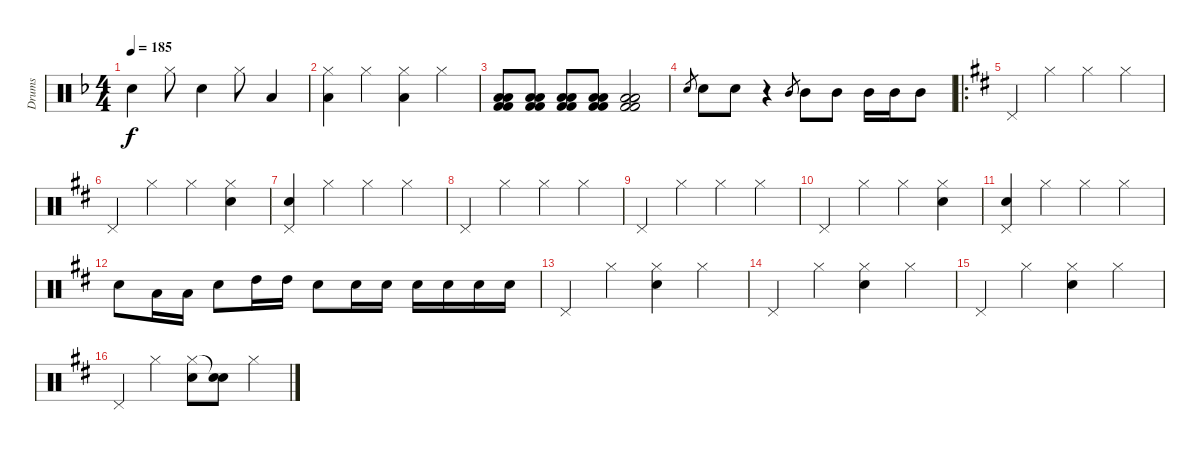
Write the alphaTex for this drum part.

\track ("Drums" "Drums") {instrument percussion}
\staff {score}
\articulation defaults
\ts (4 4)
\tempo 185
\clef neutral
\ks f "Snare (hit) 2".4{dy f} "Hi-Hat (closed)".8 "Snare (hit) 2".4 "Hi-Hat (closed)".8 "Low Floor Tom (hit)".4
|
("Hi-Hat (closed)" "Low Floor Tom (hit)").4 "Hi-Hat (closed)".4 ("Hi-Hat (closed)" "Low Floor Tom (hit)").4 "Hi-Hat (closed)".4 |
("Low Floor Tom (hit)" "Low Floor Tom (hit)" "Kick (hit) 2" "Kick (hit) 2").8 ("Low Floor Tom (hit)" "Low Floor Tom (hit)" "Kick (hit) 2" "Kick (hit) 2").8 ("Low Floor Tom (hit)" "Low Floor Tom (hit)" "Kick (hit) 2" "Kick (hit) 2").8 ("Low Floor Tom (hit)" "Low Floor Tom (hit)" "Kick (hit) 2" "Kick (hit) 2").8 ("Low Floor Tom (hit)" "Low Floor Tom (hit)" "Kick (hit) 2" "Kick (hit) 2").2 |
"Electric Snare (hit)".8{gr} "Electric Snare (hit)".8 "Electric Snare (hit)".8 r.4 "Mid Tom (hit)".8{gr} "Mid Tom (hit)".8 "Mid Tom (hit)".8 "Mid Tom (hit)".16 "Mid Tom (hit)".16 "Mid Tom (hit)".8 |
\ro
\ks d "Pedal Hi-Hat (hit)".4 "Hi-Hat (closed)".4 "Hi-Hat (closed)".4 "Hi-Hat (closed)".4
|
"Pedal Hi-Hat (hit)".4 "Hi-Hat (closed)".4 "Hi-Hat (closed)".4 ("Hi-Hat (closed)" "Snare (hit) 2").4 |
("Pedal Hi-Hat (hit)" "Snare (hit) 2").4 "Hi-Hat (closed)".4 "Hi-Hat (closed)".4 "Hi-Hat (closed)".4 |
"Pedal Hi-Hat (hit)".4 "Hi-Hat (closed)".4 "Hi-Hat (closed)".4 "Hi-Hat (closed)".4 |
"Pedal Hi-Hat (hit)".4 "Hi-Hat (closed)".4 "Hi-Hat (closed)".4 "Hi-Hat (closed)".4 |
"Pedal Hi-Hat (hit)".4 "Hi-Hat (closed)".4 "Hi-Hat (closed)".4 ("Hi-Hat (closed)" "Snare (hit) 2").4 |
("Pedal Hi-Hat (hit)" "Snare (hit) 2").4 "Hi-Hat (closed)".4 "Hi-Hat (closed)".4 "Hi-Hat (closed)".4 |
"Snare (hit) 2".8 "Low Floor Tom (hit)".16 "Low Floor Tom (hit)".16 "Snare (hit) 2".8 "High Tom (hit)".16 "High Tom (hit)".16 "Snare (hit) 2".8 "Electric Snare (hit)".16 "Electric Snare (hit)".16 "Snare (hit) 2".16 "Snare (hit) 2".16 "Snare (hit) 2".16 "Snare (hit) 2".16 |
"Pedal Hi-Hat (hit)".4 "Hi-Hat (closed)".4 ("Hi-Hat (closed)" "Snare (hit) 2").4 "Hi-Hat (closed)".4 |
"Pedal Hi-Hat (hit)".4 "Hi-Hat (closed)".4 ("Hi-Hat (closed)" "Snare (hit) 2").4 "Hi-Hat (closed)".4 |
"Pedal Hi-Hat (hit)".4 "Hi-Hat (closed)".4 ("Hi-Hat (closed)" "Snare (hit) 2").4 "Hi-Hat (closed)".4 |
"Pedal Hi-Hat (hit)".4 "Hi-Hat (closed)".4 ("Hi-Hat (closed)" "Snare (hit) 2").8 ("Snare (hit)"{t} "Snare (hit) 2").8 "Hi-Hat (closed)".4
